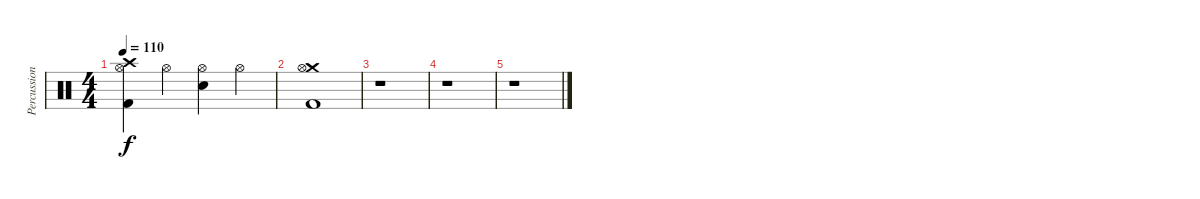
\track ("Percussion" "Percussion") {instrument percussion}
\staff {score}
\articulation defaults
\ts (4 4)
\tempo 110
\clef neutral
\ks c
("Crash high (hit)" "Hi-Hat (open)" "Kick (hit) 2").4{dy f} "Hi-Hat (open)".4 ("Hi-Hat (open)" "Electric Snare (hit)").4 "Hi-Hat (open)".4 |
("Crash medium (hit)" "Hi-Hat (open)" "Kick (hit) 2").1 |
r.1 |
r.1 |
r.1
